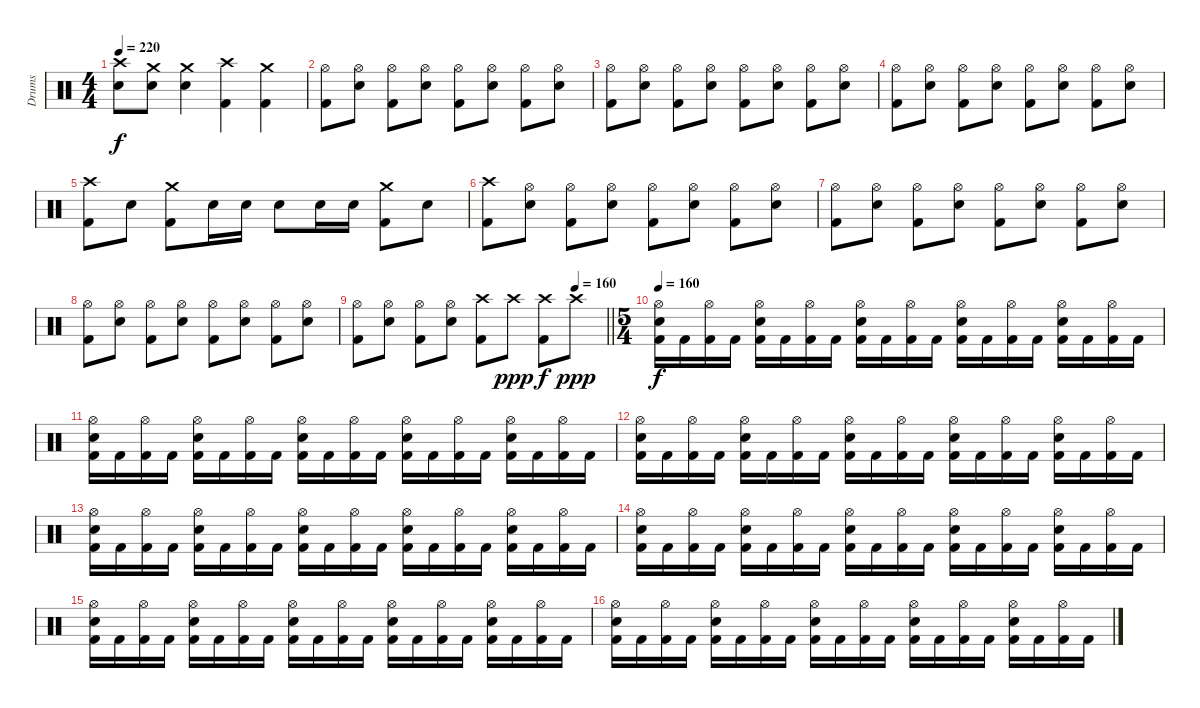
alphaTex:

\track ("Drums" "Drums") {instrument percussion}
\staff {score}
\articulation defaults
\ts (4 4)
\tempo 220
\clef neutral
\ks c
("Crash high (hit)" "Electric Snare (hit)").8{dy f} ("Crash medium (hit)" "Electric Snare (hit)").8 ("Crash medium (hit)" "Electric Snare (hit)").4 ("Crash high (hit)" "Kick (hit) 2").4 ("Crash medium (hit)" "Kick (hit) 2").4 |
("Hi-Hat (open)" "Kick (hit) 2").8 ("Hi-Hat (open)" "Electric Snare (hit)").8 ("Hi-Hat (open)" "Kick (hit) 2").8 ("Hi-Hat (open)" "Electric Snare (hit)").8 ("Hi-Hat (open)" "Kick (hit) 2").8 ("Hi-Hat (open)" "Electric Snare (hit)").8 ("Hi-Hat (open)" "Kick (hit) 2").8 ("Hi-Hat (open)" "Electric Snare (hit)").8 |
("Hi-Hat (open)" "Kick (hit) 2").8 ("Hi-Hat (open)" "Electric Snare (hit)").8 ("Hi-Hat (open)" "Kick (hit) 2").8 ("Hi-Hat (open)" "Electric Snare (hit)").8 ("Hi-Hat (open)" "Kick (hit) 2").8 ("Hi-Hat (open)" "Electric Snare (hit)").8 ("Hi-Hat (open)" "Kick (hit) 2").8 ("Hi-Hat (open)" "Electric Snare (hit)").8 |
("Hi-Hat (open)" "Kick (hit) 2").8 ("Hi-Hat (open)" "Electric Snare (hit)").8 ("Hi-Hat (open)" "Kick (hit) 2").8 ("Hi-Hat (open)" "Electric Snare (hit)").8 ("Hi-Hat (open)" "Kick (hit) 2").8 ("Hi-Hat (open)" "Electric Snare (hit)").8 ("Hi-Hat (open)" "Kick (hit) 2").8 ("Hi-Hat (open)" "Electric Snare (hit)").8 |
("Crash high (hit)" "Kick (hit) 2").8 "Electric Snare (hit)".8 ("Crash medium (hit)" "Kick (hit) 2").8 "Electric Snare (hit)".16 "Electric Snare (hit)".16 "Electric Snare (hit)".8 "Electric Snare (hit)".16 "Electric Snare (hit)".16 ("Crash medium (hit)" "Kick (hit) 2").8 "Electric Snare (hit)".8 |
("Crash high (hit)" "Kick (hit) 2").8 ("Hi-Hat (open)" "Electric Snare (hit)").8 ("Hi-Hat (open)" "Kick (hit) 2").8 ("Hi-Hat (open)" "Electric Snare (hit)").8 ("Hi-Hat (open)" "Kick (hit) 2").8 ("Hi-Hat (open)" "Electric Snare (hit)").8 ("Hi-Hat (open)" "Kick (hit) 2").8 ("Hi-Hat (open)" "Electric Snare (hit)").8 |
("Hi-Hat (open)" "Kick (hit) 2").8 ("Hi-Hat (open)" "Electric Snare (hit)").8 ("Hi-Hat (open)" "Kick (hit) 2").8 ("Hi-Hat (open)" "Electric Snare (hit)").8 ("Hi-Hat (open)" "Kick (hit) 2").8 ("Hi-Hat (open)" "Electric Snare (hit)").8 ("Hi-Hat (open)" "Kick (hit) 2").8 ("Hi-Hat (open)" "Electric Snare (hit)").8 |
("Hi-Hat (open)" "Kick (hit) 2").8 ("Hi-Hat (open)" "Electric Snare (hit)").8 ("Hi-Hat (open)" "Kick (hit) 2").8 ("Hi-Hat (open)" "Electric Snare (hit)").8 ("Hi-Hat (open)" "Kick (hit) 2").8 ("Hi-Hat (open)" "Electric Snare (hit)").8 ("Hi-Hat (open)" "Kick (hit) 2").8 ("Hi-Hat (open)" "Electric Snare (hit)").8 |
\tempo (160 0.875)
\barLineRight lightlight
("Hi-Hat (open)" "Kick (hit) 2").8 ("Hi-Hat (open)" "Electric Snare (hit)").8 ("Hi-Hat (open)" "Kick (hit) 2").8 ("Hi-Hat (open)" "Electric Snare (hit)").8 ("Crash high (hit)" "Kick (hit) 2").8 "Crash high (hit)".8{dy ppp} ("Crash high (hit)" "Kick (hit) 2").8{dy f} "Crash high (hit)".8{dy ppp} |
\ts (5 4)
\tempo 160
("Hi-Hat (open)" "Electric Snare (hit)" "Kick (hit) 2").16{dy f} "Kick (hit) 2".16 ("Hi-Hat (open)" "Kick (hit) 2").16 "Kick (hit) 2".16 ("Hi-Hat (open)" "Electric Snare (hit)" "Kick (hit) 2").16 "Kick (hit) 2".16 ("Hi-Hat (open)" "Kick (hit) 2").16 "Kick (hit) 2".16 ("Hi-Hat (open)" "Electric Snare (hit)" "Kick (hit) 2").16 "Kick (hit) 2".16 ("Hi-Hat (open)" "Kick (hit) 2").16 "Kick (hit) 2".16 ("Hi-Hat (open)" "Electric Snare (hit)" "Kick (hit) 2").16 "Kick (hit) 2".16 ("Hi-Hat (open)" "Kick (hit) 2").16 "Kick (hit) 2".16 ("Hi-Hat (open)" "Electric Snare (hit)" "Kick (hit) 2").16 "Kick (hit) 2".16 ("Hi-Hat (open)" "Kick (hit) 2").16 "Kick (hit) 2".16 |
("Hi-Hat (open)" "Electric Snare (hit)" "Kick (hit) 2").16 "Kick (hit) 2".16 ("Hi-Hat (open)" "Kick (hit) 2").16 "Kick (hit) 2".16 ("Hi-Hat (open)" "Electric Snare (hit)" "Kick (hit) 2").16 "Kick (hit) 2".16 ("Hi-Hat (open)" "Kick (hit) 2").16 "Kick (hit) 2".16 ("Hi-Hat (open)" "Electric Snare (hit)" "Kick (hit) 2").16 "Kick (hit) 2".16 ("Hi-Hat (open)" "Kick (hit) 2").16 "Kick (hit) 2".16 ("Hi-Hat (open)" "Electric Snare (hit)" "Kick (hit) 2").16 "Kick (hit) 2".16 ("Hi-Hat (open)" "Kick (hit) 2").16 "Kick (hit) 2".16 ("Hi-Hat (open)" "Electric Snare (hit)" "Kick (hit) 2").16 "Kick (hit) 2".16 ("Hi-Hat (open)" "Kick (hit) 2").16 "Kick (hit) 2".16 |
("Hi-Hat (open)" "Electric Snare (hit)" "Kick (hit) 2").16 "Kick (hit) 2".16 ("Hi-Hat (open)" "Kick (hit) 2").16 "Kick (hit) 2".16 ("Hi-Hat (open)" "Electric Snare (hit)" "Kick (hit) 2").16 "Kick (hit) 2".16 ("Hi-Hat (open)" "Kick (hit) 2").16 "Kick (hit) 2".16 ("Hi-Hat (open)" "Electric Snare (hit)" "Kick (hit) 2").16 "Kick (hit) 2".16 ("Hi-Hat (open)" "Kick (hit) 2").16 "Kick (hit) 2".16 ("Hi-Hat (open)" "Electric Snare (hit)" "Kick (hit) 2").16 "Kick (hit) 2".16 ("Hi-Hat (open)" "Kick (hit) 2").16 "Kick (hit) 2".16 ("Hi-Hat (open)" "Electric Snare (hit)" "Kick (hit) 2").16 "Kick (hit) 2".16 ("Hi-Hat (open)" "Kick (hit) 2").16 "Kick (hit) 2".16 |
("Hi-Hat (open)" "Electric Snare (hit)" "Kick (hit) 2").16 "Kick (hit) 2".16 ("Hi-Hat (open)" "Kick (hit) 2").16 "Kick (hit) 2".16 ("Hi-Hat (open)" "Electric Snare (hit)" "Kick (hit) 2").16 "Kick (hit) 2".16 ("Hi-Hat (open)" "Kick (hit) 2").16 "Kick (hit) 2".16 ("Hi-Hat (open)" "Electric Snare (hit)" "Kick (hit) 2").16 "Kick (hit) 2".16 ("Hi-Hat (open)" "Kick (hit) 2").16 "Kick (hit) 2".16 ("Hi-Hat (open)" "Electric Snare (hit)" "Kick (hit) 2").16 "Kick (hit) 2".16 ("Hi-Hat (open)" "Kick (hit) 2").16 "Kick (hit) 2".16 ("Hi-Hat (open)" "Electric Snare (hit)" "Kick (hit) 2").16 "Kick (hit) 2".16 ("Hi-Hat (open)" "Kick (hit) 2").16 "Kick (hit) 2".16 |
("Hi-Hat (open)" "Electric Snare (hit)" "Kick (hit) 2").16 "Kick (hit) 2".16 ("Hi-Hat (open)" "Kick (hit) 2").16 "Kick (hit) 2".16 ("Hi-Hat (open)" "Electric Snare (hit)" "Kick (hit) 2").16 "Kick (hit) 2".16 ("Hi-Hat (open)" "Kick (hit) 2").16 "Kick (hit) 2".16 ("Hi-Hat (open)" "Electric Snare (hit)" "Kick (hit) 2").16 "Kick (hit) 2".16 ("Hi-Hat (open)" "Kick (hit) 2").16 "Kick (hit) 2".16 ("Hi-Hat (open)" "Electric Snare (hit)" "Kick (hit) 2").16 "Kick (hit) 2".16 ("Hi-Hat (open)" "Kick (hit) 2").16 "Kick (hit) 2".16 ("Hi-Hat (open)" "Electric Snare (hit)" "Kick (hit) 2").16 "Kick (hit) 2".16 ("Hi-Hat (open)" "Kick (hit) 2").16 "Kick (hit) 2".16 |
("Hi-Hat (open)" "Electric Snare (hit)" "Kick (hit) 2").16 "Kick (hit) 2".16 ("Hi-Hat (open)" "Kick (hit) 2").16 "Kick (hit) 2".16 ("Hi-Hat (open)" "Electric Snare (hit)" "Kick (hit) 2").16 "Kick (hit) 2".16 ("Hi-Hat (open)" "Kick (hit) 2").16 "Kick (hit) 2".16 ("Hi-Hat (open)" "Electric Snare (hit)" "Kick (hit) 2").16 "Kick (hit) 2".16 ("Hi-Hat (open)" "Kick (hit) 2").16 "Kick (hit) 2".16 ("Hi-Hat (open)" "Electric Snare (hit)" "Kick (hit) 2").16 "Kick (hit) 2".16 ("Hi-Hat (open)" "Kick (hit) 2").16 "Kick (hit) 2".16 ("Hi-Hat (open)" "Electric Snare (hit)" "Kick (hit) 2").16 "Kick (hit) 2".16 ("Hi-Hat (open)" "Kick (hit) 2").16 "Kick (hit) 2".16 |
("Hi-Hat (open)" "Electric Snare (hit)" "Kick (hit) 2").16 "Kick (hit) 2".16 ("Hi-Hat (open)" "Kick (hit) 2").16 "Kick (hit) 2".16 ("Hi-Hat (open)" "Electric Snare (hit)" "Kick (hit) 2").16 "Kick (hit) 2".16 ("Hi-Hat (open)" "Kick (hit) 2").16 "Kick (hit) 2".16 ("Hi-Hat (open)" "Electric Snare (hit)" "Kick (hit) 2").16 "Kick (hit) 2".16 ("Hi-Hat (open)" "Kick (hit) 2").16 "Kick (hit) 2".16 ("Hi-Hat (open)" "Electric Snare (hit)" "Kick (hit) 2").16 "Kick (hit) 2".16 ("Hi-Hat (open)" "Kick (hit) 2").16 "Kick (hit) 2".16 ("Hi-Hat (open)" "Electric Snare (hit)" "Kick (hit) 2").16 "Kick (hit) 2".16 ("Hi-Hat (open)" "Kick (hit) 2").16 "Kick (hit) 2".16
